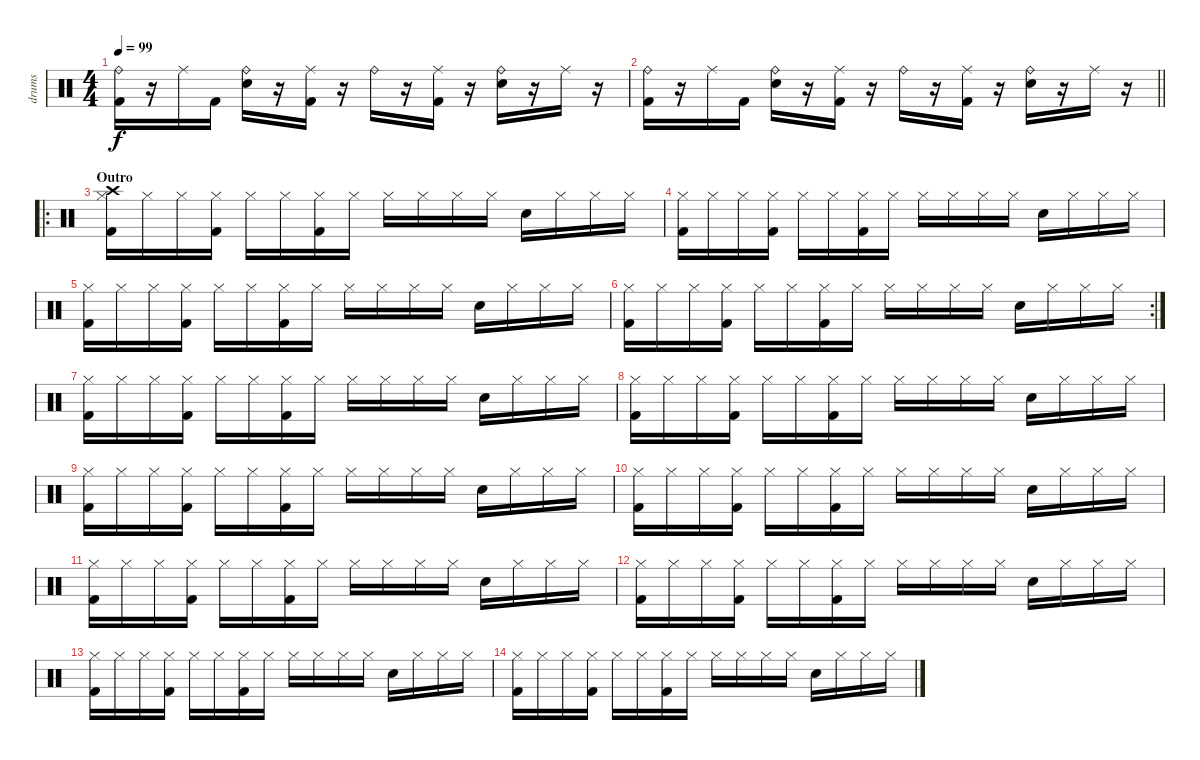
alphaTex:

\track ("drums" "drums") {instrument percussion}
\staff {score}
\articulation defaults
\ts (4 4)
\tempo 99
\clef neutral
\ks c
("Ride (bell)" "Kick (hit) 2").16{dy f} r.16 "Ride (middle)".16 "Kick (hit) 2".16 ("Ride (bell)" "Snare (hit) 2").16 r.16 ("Ride (middle)" "Kick (hit) 2").16 r.16 "Ride (bell)"{nh}.16 r.16 ("Ride (middle)" "Kick (hit) 2").16 r.16 ("Ride (bell)" "Snare (hit) 2").16 r.16 "Ride (middle)".16 r.16 |
\barLineRight lightlight
("Ride (bell)" "Kick (hit) 2").16 r.16 "Ride (middle)".16 "Kick (hit) 2".16 ("Ride (bell)" "Snare (hit) 2").16 r.16 ("Ride (middle)" "Kick (hit) 2").16 r.16 "Ride (bell)"{nh}.16 r.16 ("Ride (middle)" "Kick (hit) 2").16 r.16 ("Ride (bell)" "Snare (hit) 2").16 r.16 "Ride (middle)".16 r.16 |
\ro
\section ("" "Outro")
("Crash high (hit)" "Hi-Hat (closed)" "Kick (hit) 2").16 "Hi-Hat (closed)".16 "Hi-Hat (closed)".16 ("Hi-Hat (closed)" "Kick (hit) 2").16 "Hi-Hat (closed)".16 "Hi-Hat (closed)".16 ("Hi-Hat (closed)" "Kick (hit) 2").16 "Hi-Hat (closed)".16 "Hi-Hat (closed)"{nh}.16 "Hi-Hat (closed)".16 "Hi-Hat (closed)".16 "Hi-Hat (closed)".16 "Snare (hit) 2".16 "Hi-Hat (closed)".16 "Hi-Hat (closed)".16 "Hi-Hat (closed)".16 |
("Hi-Hat (closed)" "Kick (hit) 2").16 "Hi-Hat (closed)".16 "Hi-Hat (closed)".16 ("Hi-Hat (closed)" "Kick (hit) 2").16 "Hi-Hat (closed)".16 "Hi-Hat (closed)".16 ("Hi-Hat (closed)" "Kick (hit) 2").16 "Hi-Hat (closed)".16 "Hi-Hat (closed)"{nh}.16 "Hi-Hat (closed)".16 "Hi-Hat (closed)".16 "Hi-Hat (closed)".16 "Snare (hit) 2".16 "Hi-Hat (closed)".16 "Hi-Hat (closed)".16 "Hi-Hat (closed)".16 |
("Hi-Hat (closed)" "Kick (hit) 2").16 "Hi-Hat (closed)".16 "Hi-Hat (closed)".16 ("Hi-Hat (closed)" "Kick (hit) 2").16 "Hi-Hat (closed)".16 "Hi-Hat (closed)".16 ("Hi-Hat (closed)" "Kick (hit) 2").16 "Hi-Hat (closed)".16 "Hi-Hat (closed)"{nh}.16 "Hi-Hat (closed)".16 "Hi-Hat (closed)".16 "Hi-Hat (closed)".16 "Snare (hit) 2".16 "Hi-Hat (closed)".16 "Hi-Hat (closed)".16 "Hi-Hat (closed)".16 |
\rc 2
("Hi-Hat (closed)" "Kick (hit) 2").16 "Hi-Hat (closed)".16 "Hi-Hat (closed)".16 ("Hi-Hat (closed)" "Kick (hit) 2").16 "Hi-Hat (closed)".16 "Hi-Hat (closed)".16 ("Hi-Hat (closed)" "Kick (hit) 2").16 "Hi-Hat (closed)".16 "Hi-Hat (closed)"{nh}.16 "Hi-Hat (closed)".16 "Hi-Hat (closed)".16 "Hi-Hat (closed)".16 "Snare (hit) 2".16 "Hi-Hat (closed)".16 "Hi-Hat (closed)".16 "Hi-Hat (closed)".16 |
("Hi-Hat (closed)" "Kick (hit) 2").16 "Hi-Hat (closed)".16 "Hi-Hat (closed)".16 ("Hi-Hat (closed)" "Kick (hit) 2").16 "Hi-Hat (closed)".16 "Hi-Hat (closed)".16 ("Hi-Hat (closed)" "Kick (hit) 2").16 "Hi-Hat (closed)".16 "Hi-Hat (closed)"{nh}.16 "Hi-Hat (closed)".16 "Hi-Hat (closed)".16 "Hi-Hat (closed)".16 "Snare (hit) 2".16 "Hi-Hat (closed)".16 "Hi-Hat (closed)".16 "Hi-Hat (closed)".16 |
("Hi-Hat (closed)" "Kick (hit) 2").16 "Hi-Hat (closed)".16 "Hi-Hat (closed)".16 ("Hi-Hat (closed)" "Kick (hit) 2").16 "Hi-Hat (closed)".16 "Hi-Hat (closed)".16 ("Hi-Hat (closed)" "Kick (hit) 2").16 "Hi-Hat (closed)".16 "Hi-Hat (closed)"{nh}.16 "Hi-Hat (closed)".16 "Hi-Hat (closed)".16 "Hi-Hat (closed)".16 "Snare (hit) 2".16 "Hi-Hat (closed)".16 "Hi-Hat (closed)".16 "Hi-Hat (closed)".16 |
("Hi-Hat (closed)" "Kick (hit) 2").16 "Hi-Hat (closed)".16 "Hi-Hat (closed)".16 ("Hi-Hat (closed)" "Kick (hit) 2").16 "Hi-Hat (closed)".16 "Hi-Hat (closed)".16 ("Hi-Hat (closed)" "Kick (hit) 2").16 "Hi-Hat (closed)".16 "Hi-Hat (closed)"{nh}.16 "Hi-Hat (closed)".16 "Hi-Hat (closed)".16 "Hi-Hat (closed)".16 "Snare (hit) 2".16 "Hi-Hat (closed)".16 "Hi-Hat (closed)".16 "Hi-Hat (closed)".16 |
("Hi-Hat (closed)" "Kick (hit) 2").16 "Hi-Hat (closed)".16 "Hi-Hat (closed)".16 ("Hi-Hat (closed)" "Kick (hit) 2").16 "Hi-Hat (closed)".16 "Hi-Hat (closed)".16 ("Hi-Hat (closed)" "Kick (hit) 2").16 "Hi-Hat (closed)".16 "Hi-Hat (closed)"{nh}.16 "Hi-Hat (closed)".16 "Hi-Hat (closed)".16 "Hi-Hat (closed)".16 "Snare (hit) 2".16 "Hi-Hat (closed)".16 "Hi-Hat (closed)".16 "Hi-Hat (closed)".16 |
("Hi-Hat (closed)" "Kick (hit) 2").16{volume 3} "Hi-Hat (closed)".16 "Hi-Hat (closed)".16 ("Hi-Hat (closed)" "Kick (hit) 2").16 "Hi-Hat (closed)".16 "Hi-Hat (closed)".16 ("Hi-Hat (closed)" "Kick (hit) 2").16 "Hi-Hat (closed)".16 "Hi-Hat (closed)"{nh}.16 "Hi-Hat (closed)".16 "Hi-Hat (closed)".16 "Hi-Hat (closed)".16 "Snare (hit) 2".16 "Hi-Hat (closed)".16 "Hi-Hat (closed)".16 "Hi-Hat (closed)".16 |
("Hi-Hat (closed)" "Kick (hit) 2").16 "Hi-Hat (closed)".16 "Hi-Hat (closed)".16 ("Hi-Hat (closed)" "Kick (hit) 2").16 "Hi-Hat (closed)".16 "Hi-Hat (closed)".16 ("Hi-Hat (closed)" "Kick (hit) 2").16 "Hi-Hat (closed)".16 "Hi-Hat (closed)"{nh}.16 "Hi-Hat (closed)".16 "Hi-Hat (closed)".16 "Hi-Hat (closed)".16 "Snare (hit) 2".16 "Hi-Hat (closed)".16 "Hi-Hat (closed)".16 "Hi-Hat (closed)".16 |
("Hi-Hat (closed)" "Kick (hit) 2").16 "Hi-Hat (closed)".16 "Hi-Hat (closed)".16 ("Hi-Hat (closed)" "Kick (hit) 2").16 "Hi-Hat (closed)".16 "Hi-Hat (closed)".16 ("Hi-Hat (closed)" "Kick (hit) 2").16 "Hi-Hat (closed)".16 "Hi-Hat (closed)"{nh}.16 "Hi-Hat (closed)".16 "Hi-Hat (closed)".16 "Hi-Hat (closed)".16 "Snare (hit) 2".16 "Hi-Hat (closed)".16 "Hi-Hat (closed)".16 "Hi-Hat (closed)".16 |
("Hi-Hat (closed)" "Kick (hit) 2").16 "Hi-Hat (closed)".16 "Hi-Hat (closed)".16 ("Hi-Hat (closed)" "Kick (hit) 2").16 "Hi-Hat (closed)".16 "Hi-Hat (closed)".16 ("Hi-Hat (closed)" "Kick (hit) 2").16 "Hi-Hat (closed)".16 "Hi-Hat (closed)"{nh}.16 "Hi-Hat (closed)".16 "Hi-Hat (closed)".16 "Hi-Hat (closed)".16 "Snare (hit) 2".16 "Hi-Hat (closed)".16 "Hi-Hat (closed)".16 "Hi-Hat (closed)".16
